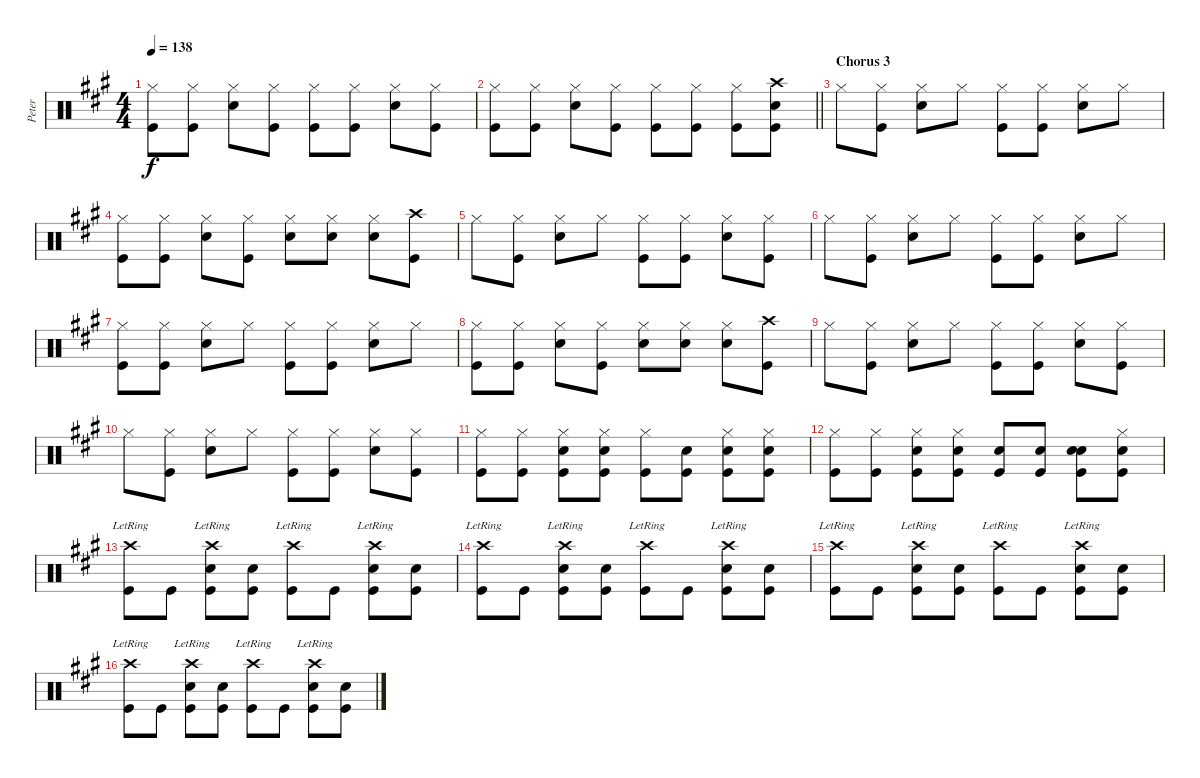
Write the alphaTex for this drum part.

\track ("Peter" "Peter") {instrument percussion}
\staff {score}
\articulation defaults
\ts (4 4)
\tempo 138
\clef neutral
\ks a
("Hi-Hat (closed)" "Kick (hit)").8{dy f} ("Hi-Hat (closed)" "Kick (hit)").8 ("Hi-Hat (closed)" "Snare (hit) 2").8 ("Hi-Hat (closed)" "Kick (hit)").8 ("Hi-Hat (closed)" "Kick (hit)").8 ("Hi-Hat (closed)" "Kick (hit)").8 ("Hi-Hat (closed)" "Snare (hit) 2").8 ("Hi-Hat (closed)" "Kick (hit)").8 |
\barLineRight lightlight
("Hi-Hat (closed)" "Kick (hit)").8 ("Hi-Hat (closed)" "Kick (hit)").8 ("Hi-Hat (closed)" "Snare (hit) 2").8 ("Hi-Hat (closed)" "Kick (hit)").8 ("Hi-Hat (closed)" "Kick (hit)").8 ("Hi-Hat (closed)" "Kick (hit)").8 ("Hi-Hat (closed)" "Kick (hit)").8 ("Crash high (hit)" "Snare (hit) 2" "Kick (hit)").8 |
\section ("" "Chorus 3")
"Hi-Hat (closed)".8 ("Hi-Hat (closed)" "Kick (hit)").8 ("Hi-Hat (closed)" "Snare (hit) 2").8 "Hi-Hat (closed)".8 ("Hi-Hat (closed)" "Kick (hit)").8 ("Hi-Hat (closed)" "Kick (hit)").8 ("Hi-Hat (closed)" "Snare (hit) 2").8 "Hi-Hat (closed)".8 |
("Hi-Hat (closed)" "Kick (hit)").8 ("Hi-Hat (closed)" "Kick (hit)").8 ("Hi-Hat (closed)" "Snare (hit) 2").8 ("Hi-Hat (closed)" "Kick (hit)").8 ("Hi-Hat (closed)" "Snare (hit) 2").8 ("Hi-Hat (closed)" "Snare (hit) 2").8 ("Hi-Hat (closed)" "Snare (hit) 2").8 ("Crash high (hit)" "Kick (hit)").8 |
"Hi-Hat (closed)".8 ("Hi-Hat (closed)" "Kick (hit)").8 ("Hi-Hat (closed)" "Snare (hit) 2").8 "Hi-Hat (closed)".8 ("Hi-Hat (closed)" "Kick (hit)").8 ("Hi-Hat (closed)" "Kick (hit)").8 ("Hi-Hat (closed)" "Snare (hit) 2").8 ("Hi-Hat (closed)" "Kick (hit)").8 |
"Hi-Hat (closed)".8 ("Hi-Hat (closed)" "Kick (hit)").8 ("Hi-Hat (closed)" "Snare (hit) 2").8 "Hi-Hat (closed)".8 ("Hi-Hat (closed)" "Kick (hit)").8 ("Hi-Hat (closed)" "Kick (hit)").8 ("Hi-Hat (closed)" "Snare (hit) 2").8 "Hi-Hat (closed)".8 |
("Hi-Hat (closed)" "Kick (hit)").8 ("Hi-Hat (closed)" "Kick (hit)").8 ("Hi-Hat (closed)" "Snare (hit) 2").8 "Hi-Hat (closed)".8 ("Hi-Hat (closed)" "Kick (hit)").8 ("Hi-Hat (closed)" "Kick (hit)").8 ("Hi-Hat (closed)" "Snare (hit) 2").8 "Hi-Hat (closed)".8 |
("Hi-Hat (closed)" "Kick (hit)").8 ("Hi-Hat (closed)" "Kick (hit)").8 ("Hi-Hat (closed)" "Snare (hit) 2").8 ("Hi-Hat (closed)" "Kick (hit)").8 ("Hi-Hat (closed)" "Snare (hit) 2").8 ("Hi-Hat (closed)" "Snare (hit) 2").8 ("Hi-Hat (closed)" "Snare (hit) 2").8 ("Crash high (hit)" "Kick (hit)").8 |
"Hi-Hat (closed)".8 ("Hi-Hat (closed)" "Kick (hit)").8 ("Hi-Hat (closed)" "Snare (hit) 2").8 "Hi-Hat (closed)".8 ("Hi-Hat (closed)" "Kick (hit)").8 ("Hi-Hat (closed)" "Kick (hit)").8 ("Hi-Hat (closed)" "Snare (hit) 2").8 ("Hi-Hat (closed)" "Kick (hit)").8 |
"Hi-Hat (closed)".8 ("Hi-Hat (closed)" "Kick (hit)").8 ("Hi-Hat (closed)" "Snare (hit) 2").8 "Hi-Hat (closed)".8 ("Hi-Hat (closed)" "Kick (hit)").8 ("Hi-Hat (closed)" "Kick (hit)").8 ("Hi-Hat (closed)" "Snare (hit) 2").8 ("Hi-Hat (closed)" "Kick (hit)").8 |
("Hi-Hat (closed)" "Kick (hit)").8 ("Hi-Hat (closed)" "Kick (hit)").8 ("Hi-Hat (closed)" "Snare (hit) 2" "Kick (hit)").8 ("Hi-Hat (closed)" "Snare (hit) 2" "Kick (hit)").8 ("Hi-Hat (closed)" "Kick (hit)").8 ("Snare (hit)" "Kick (hit)").8 ("Hi-Hat (closed)" "Snare (hit) 2" "Kick (hit)").8 ("Hi-Hat (closed)" "Snare (hit) 2" "Kick (hit)").8 |
("Hi-Hat (closed)" "Kick (hit)").8 ("Hi-Hat (closed)" "Kick (hit)").8 ("Hi-Hat (closed)" "Snare (hit) 2" "Kick (hit)").8 ("Hi-Hat (closed)" "Snare (hit) 2" "Kick (hit)").8 ("Snare (hit)" "Kick (hit)").8 ("Snare (hit)" "Kick (hit)").8 ("Snare (hit)" "Snare (hit) 2" "Kick (hit)").8 ("Hi-Hat (closed)" "Snare (hit) 2" "Kick (hit)").8 |
("Crash high (hit)"{lr} "Kick (hit)").8 "Kick (hit)".8 ("Crash high (hit)"{lr} "Snare (hit) 2" "Kick (hit)").8 ("Snare (hit) 2" "Kick (hit)").8 ("Crash high (hit)"{lr} "Kick (hit)").8 "Kick (hit)".8 ("Crash high (hit)"{lr} "Snare (hit) 2" "Kick (hit)").8 ("Snare (hit) 2" "Kick (hit)").8 |
("Crash high (hit)"{lr} "Kick (hit)").8 "Kick (hit)".8 ("Crash high (hit)"{lr} "Snare (hit) 2" "Kick (hit)").8 ("Snare (hit) 2" "Kick (hit)").8 ("Crash high (hit)"{lr} "Kick (hit)").8 "Kick (hit)".8 ("Crash high (hit)"{lr} "Snare (hit) 2" "Kick (hit)").8 ("Snare (hit) 2" "Kick (hit)").8 |
("Crash high (hit)"{lr} "Kick (hit)").8 "Kick (hit)".8 ("Crash high (hit)"{lr} "Snare (hit) 2" "Kick (hit)").8 ("Snare (hit) 2" "Kick (hit)").8 ("Crash high (hit)"{lr} "Kick (hit)").8 "Kick (hit)".8 ("Crash high (hit)"{lr} "Snare (hit) 2" "Kick (hit)").8 ("Snare (hit) 2" "Kick (hit)").8 |
("Crash high (hit)"{lr} "Kick (hit)").8 "Kick (hit)".8 ("Crash high (hit)"{lr} "Snare (hit) 2" "Kick (hit)").8 ("Snare (hit) 2" "Kick (hit)").8 ("Crash high (hit)"{lr} "Kick (hit)").8 "Kick (hit)".8 ("Crash high (hit)"{lr} "Snare (hit) 2" "Kick (hit)").8 ("Snare (hit) 2" "Kick (hit)").8
